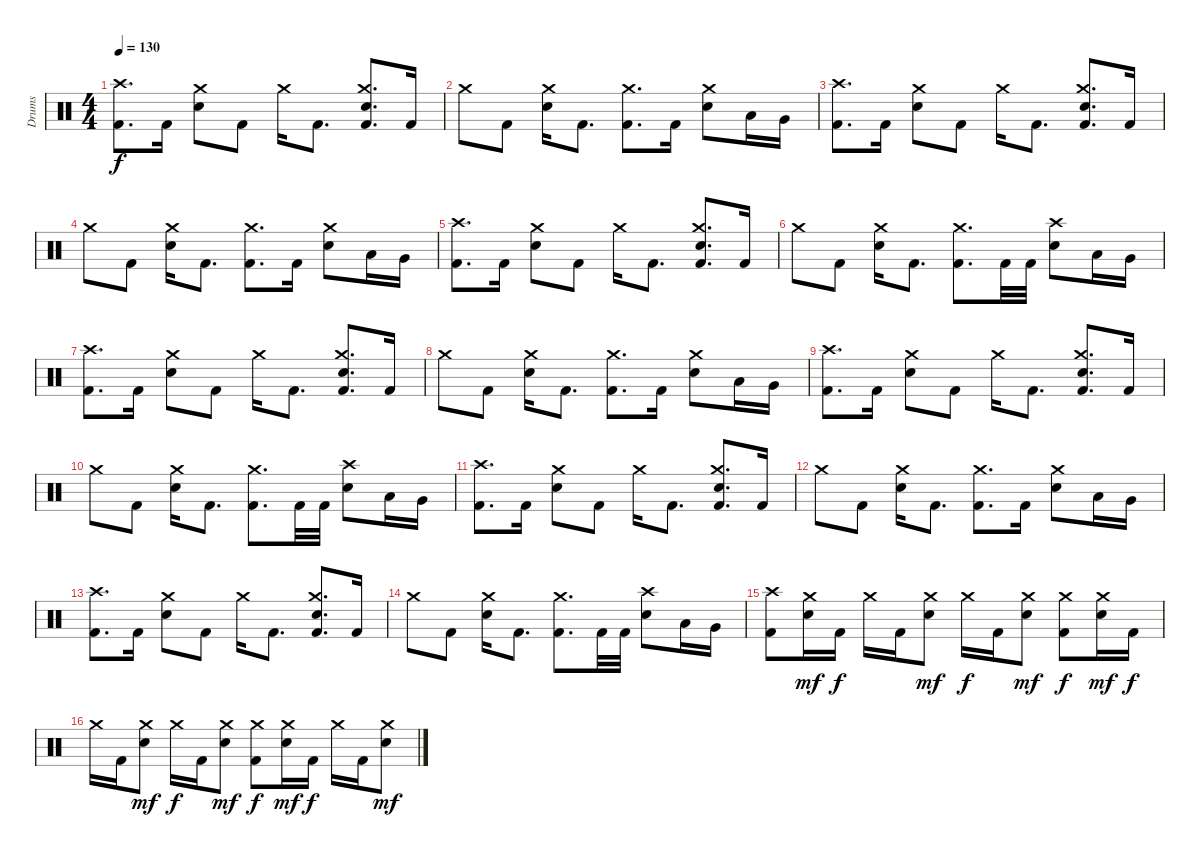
\track ("Drums" "Drums") {instrument percussion}
\staff {score}
\articulation defaults
\ts (4 4)
\tempo 130
\clef neutral
\ks c
("Kick (hit) 2" "Crash high (hit)").8{d dy f} "Kick (hit) 2".16 ("Crash medium (hit)" "Electric Snare (hit)").8 "Kick (hit) 2".8 "Crash medium (hit)".16 "Kick (hit) 2".8{d} ("Kick (hit) 2" "Crash medium (hit)" "Electric Snare (hit)").8{d} "Kick (hit) 2".16 |
"Crash medium (hit)".8 "Kick (hit) 2".8 ("Crash medium (hit)" "Electric Snare (hit)").16 "Kick (hit) 2".8{d} ("Kick (hit) 2" "Crash medium (hit)").8{d} "Kick (hit) 2".16 ("Crash medium (hit)" "Electric Snare (hit)").8 "Low Tom (hit)".16 "Very Low Tom (hit)".16 |
("Kick (hit) 2" "Crash high (hit)").8{d} "Kick (hit) 2".16 ("Crash medium (hit)" "Electric Snare (hit)").8 "Kick (hit) 2".8 "Crash medium (hit)".16 "Kick (hit) 2".8{d} ("Kick (hit) 2" "Crash medium (hit)" "Electric Snare (hit)").8{d} "Kick (hit) 2".16 |
"Crash medium (hit)".8 "Kick (hit) 2".8 ("Crash medium (hit)" "Electric Snare (hit)").16 "Kick (hit) 2".8{d} ("Kick (hit) 2" "Crash medium (hit)").8{d} "Kick (hit) 2".16 ("Crash medium (hit)" "Electric Snare (hit)").8 "Low Tom (hit)".16 "Very Low Tom (hit)".16 |
("Kick (hit) 2" "Crash high (hit)").8{d} "Kick (hit) 2".16 ("Crash medium (hit)" "Electric Snare (hit)").8 "Kick (hit) 2".8 "Crash medium (hit)".16 "Kick (hit) 2".8{d} ("Kick (hit) 2" "Crash medium (hit)" "Electric Snare (hit)").8{d} "Kick (hit) 2".16 |
"Crash medium (hit)".8 "Kick (hit) 2".8 ("Crash medium (hit)" "Electric Snare (hit)").16 "Kick (hit) 2".8{d} ("Kick (hit) 2" "Crash medium (hit)").8{d} "Kick (hit) 2".32 "Kick (hit) 2".32 ("Crash high (hit)" "Electric Snare (hit)").8 "Low Tom (hit)".16 "Very Low Tom (hit)".16 |
("Kick (hit) 2" "Crash high (hit)").8{d} "Kick (hit) 2".16 ("Crash medium (hit)" "Electric Snare (hit)").8 "Kick (hit) 2".8 "Crash medium (hit)".16 "Kick (hit) 2".8{d} ("Kick (hit) 2" "Crash medium (hit)" "Electric Snare (hit)").8{d} "Kick (hit) 2".16 |
"Crash medium (hit)".8 "Kick (hit) 2".8 ("Crash medium (hit)" "Electric Snare (hit)").16 "Kick (hit) 2".8{d} ("Kick (hit) 2" "Crash medium (hit)").8{d} "Kick (hit) 2".16 ("Crash medium (hit)" "Electric Snare (hit)").8 "Low Tom (hit)".16 "Very Low Tom (hit)".16 |
("Kick (hit) 2" "Crash high (hit)").8{d} "Kick (hit) 2".16 ("Crash medium (hit)" "Electric Snare (hit)").8 "Kick (hit) 2".8 "Crash medium (hit)".16 "Kick (hit) 2".8{d} ("Kick (hit) 2" "Crash medium (hit)" "Electric Snare (hit)").8{d} "Kick (hit) 2".16 |
"Crash medium (hit)".8 "Kick (hit) 2".8 ("Crash medium (hit)" "Electric Snare (hit)").16 "Kick (hit) 2".8{d} ("Kick (hit) 2" "Crash medium (hit)").8{d} "Kick (hit) 2".32 "Kick (hit) 2".32 ("Crash high (hit)" "Electric Snare (hit)").8 "Low Tom (hit)".16 "Very Low Tom (hit)".16 |
("Kick (hit) 2" "Crash high (hit)").8{d} "Kick (hit) 2".16 ("Crash medium (hit)" "Electric Snare (hit)").8 "Kick (hit) 2".8 "Crash medium (hit)".16 "Kick (hit) 2".8{d} ("Kick (hit) 2" "Crash medium (hit)" "Electric Snare (hit)").8{d} "Kick (hit) 2".16 |
"Crash medium (hit)".8 "Kick (hit) 2".8 ("Crash medium (hit)" "Electric Snare (hit)").16 "Kick (hit) 2".8{d} ("Kick (hit) 2" "Crash medium (hit)").8{d} "Kick (hit) 2".16 ("Crash medium (hit)" "Electric Snare (hit)").8 "Low Tom (hit)".16 "Very Low Tom (hit)".16 |
("Kick (hit) 2" "Crash high (hit)").8{d} "Kick (hit) 2".16 ("Crash medium (hit)" "Electric Snare (hit)").8 "Kick (hit) 2".8 "Crash medium (hit)".16 "Kick (hit) 2".8{d} ("Kick (hit) 2" "Crash medium (hit)" "Electric Snare (hit)").8{d} "Kick (hit) 2".16 |
"Crash medium (hit)".8 "Kick (hit) 2".8 ("Crash medium (hit)" "Electric Snare (hit)").16 "Kick (hit) 2".8{d} ("Kick (hit) 2" "Crash medium (hit)").8{d} "Kick (hit) 2".32 "Kick (hit) 2".32 ("Crash high (hit)" "Electric Snare (hit)").8 "Low Tom (hit)".16 "Very Low Tom (hit)".16 |
("Kick (hit) 2" "Crash high (hit)").8 ("Crash medium (hit)" "Electric Snare (hit)").16{dy mf} "Kick (hit) 2".16{dy f} "Crash medium (hit)".16 "Kick (hit) 2".16 ("Crash medium (hit)" "Electric Snare (hit)").8{dy mf} "Crash medium (hit)".16{dy f} "Kick (hit) 2".16 ("Crash medium (hit)" "Electric Snare (hit)").8{dy mf} ("Kick (hit) 2" "Crash medium (hit)").8{dy f} ("Crash medium (hit)" "Electric Snare (hit)").16{dy mf} "Kick (hit) 2".16{dy f} |
"Crash medium (hit)".16 "Kick (hit) 2".16 ("Crash medium (hit)" "Electric Snare (hit)").8{dy mf} "Crash medium (hit)".16{dy f} "Kick (hit) 2".16 ("Crash medium (hit)" "Electric Snare (hit)").8{dy mf} ("Kick (hit) 2" "Crash medium (hit)").8{dy f} ("Crash medium (hit)" "Electric Snare (hit)").16{dy mf} "Kick (hit) 2".16{dy f} "Crash medium (hit)".16 "Kick (hit) 2".16 ("Crash medium (hit)" "Electric Snare (hit)").8{dy mf}
